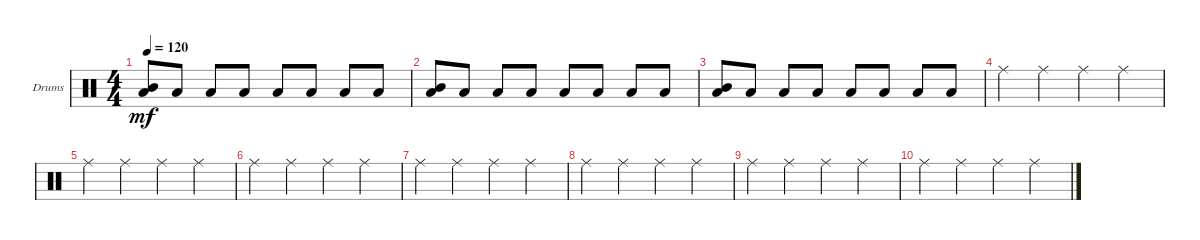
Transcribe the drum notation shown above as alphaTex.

\defaultSystemsLayout 4
\bracketExtendMode groupsimilarinstruments
\firstSystemTrackNameOrientation horizontal
\otherSystemsTrackNameOrientation horizontal
\track ("Drumkit" "Drums") {instrument percussion}
\staff {score}
\articulation defaults
\ts (4 4)
\tempo 120
\clef neutral
\ks c
("Low Tom (hit)" "Mid Tom (hit)").8{dy mf} "Low Tom (hit)".8 "Low Tom (hit)".8 "Low Tom (hit)".8 "Low Tom (hit)".8 "Low Tom (hit)".8 "Low Tom (hit)".8 "Low Tom (hit)".8 |
("Low Tom (hit)" "Mid Tom (hit)").8 "Low Tom (hit)".8 "Low Tom (hit)".8 "Low Tom (hit)".8 "Low Tom (hit)".8 "Low Tom (hit)".8 "Low Tom (hit)".8 "Low Tom (hit)".8 |
("Low Tom (hit)" "Mid Tom (hit)").8 "Low Tom (hit)".8 "Low Tom (hit)".8 "Low Tom (hit)".8 "Low Tom (hit)".8 "Low Tom (hit)".8 "Low Tom (hit)".8 "Low Tom (hit)".8 |
"Ride (middle)".4 "Ride (middle)".4 "Ride (middle)".4 "Ride (middle)".4 |
"Ride (middle)".4 "Ride (middle)".4 "Ride (middle)".4 "Ride (middle)".4 |
"Ride (middle)".4 "Ride (middle)".4 "Ride (middle)".4 "Ride (middle)".4 |
"Ride (middle)".4 "Ride (middle)".4 "Ride (middle)".4 "Ride (middle)".4 |
"Ride (middle)".4 "Ride (middle)".4 "Ride (middle)".4 "Ride (middle)".4 |
"Ride (middle)".4 "Ride (middle)".4 "Ride (middle)".4 "Ride (middle)".4 |
"Ride (middle)".4 "Ride (middle)".4 "Ride (middle)".4 "Ride (middle)".4
